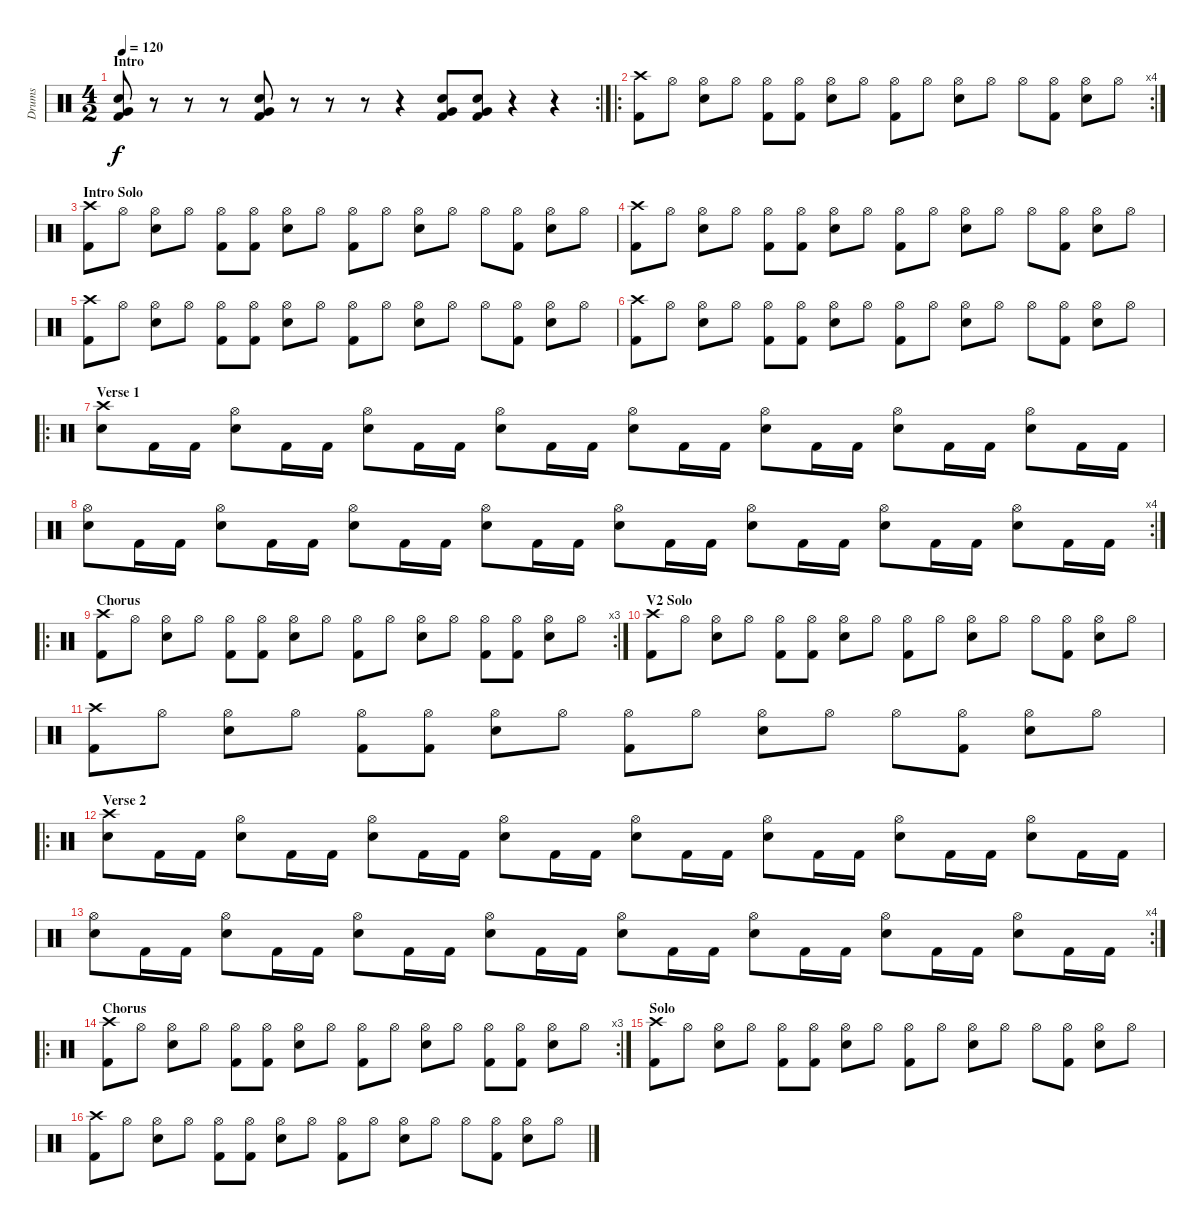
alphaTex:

\track ("Drums" "Drums") {instrument percussion}
\staff {score}
\articulation defaults
\rc 2
\ts (4 2)
\section ("" "Intro")
\tempo 120
\clef neutral
\ks c
("Electric Snare (hit)" "Very Low Tom (hit)" "Kick (hit) 2").8{dy f} r.8 r.8 r.8 ("Electric Snare (hit)" "Very Low Tom (hit)" "Kick (hit) 2").8 r.8 r.8 r.8 r.4 ("Electric Snare (hit)" "Very Low Tom (hit)" "Kick (hit) 2").8 ("Electric Snare (hit)" "Very Low Tom (hit)" "Kick (hit) 2").8 r.4 r.4 |
\ro
\rc 4
("Crash high (hit)" "Kick (hit) 2").8 "Hi-Hat (open)".8 ("Hi-Hat (open)" "Electric Snare (hit)").8 "Hi-Hat (open)".8 ("Hi-Hat (open)" "Kick (hit) 2").8 ("Hi-Hat (open)" "Kick (hit) 2").8 ("Hi-Hat (open)" "Electric Snare (hit)").8 "Hi-Hat (open)".8 ("Hi-Hat (open)" "Kick (hit) 2").8 "Hi-Hat (open)".8 ("Hi-Hat (open)" "Electric Snare (hit)").8 "Hi-Hat (open)".8 "Hi-Hat (open)".8 ("Hi-Hat (open)" "Kick (hit) 2").8 ("Hi-Hat (open)" "Electric Snare (hit)").8 "Hi-Hat (open)".8 |
\section ("" "Intro Solo")
("Crash high (hit)" "Kick (hit) 2").8 "Hi-Hat (open)".8 ("Hi-Hat (open)" "Electric Snare (hit)").8 "Hi-Hat (open)".8 ("Hi-Hat (open)" "Kick (hit) 2").8 ("Hi-Hat (open)" "Kick (hit) 2").8 ("Hi-Hat (open)" "Electric Snare (hit)").8 "Hi-Hat (open)".8 ("Hi-Hat (open)" "Kick (hit) 2").8 "Hi-Hat (open)".8 ("Hi-Hat (open)" "Electric Snare (hit)").8 "Hi-Hat (open)".8 "Hi-Hat (open)".8 ("Hi-Hat (open)" "Kick (hit) 2").8 ("Hi-Hat (open)" "Electric Snare (hit)").8 "Hi-Hat (open)".8 |
("Crash high (hit)" "Kick (hit) 2").8 "Hi-Hat (open)".8 ("Hi-Hat (open)" "Electric Snare (hit)").8 "Hi-Hat (open)".8 ("Hi-Hat (open)" "Kick (hit) 2").8 ("Hi-Hat (open)" "Kick (hit) 2").8 ("Hi-Hat (open)" "Electric Snare (hit)").8 "Hi-Hat (open)".8 ("Hi-Hat (open)" "Kick (hit) 2").8 "Hi-Hat (open)".8 ("Hi-Hat (open)" "Electric Snare (hit)").8 "Hi-Hat (open)".8 "Hi-Hat (open)".8 ("Hi-Hat (open)" "Kick (hit) 2").8 ("Hi-Hat (open)" "Electric Snare (hit)").8 "Hi-Hat (open)".8 |
("Crash high (hit)" "Kick (hit) 2").8 "Hi-Hat (open)".8 ("Hi-Hat (open)" "Electric Snare (hit)").8 "Hi-Hat (open)".8 ("Hi-Hat (open)" "Kick (hit) 2").8 ("Hi-Hat (open)" "Kick (hit) 2").8 ("Hi-Hat (open)" "Electric Snare (hit)").8 "Hi-Hat (open)".8 ("Hi-Hat (open)" "Kick (hit) 2").8 "Hi-Hat (open)".8 ("Hi-Hat (open)" "Electric Snare (hit)").8 "Hi-Hat (open)".8 "Hi-Hat (open)".8 ("Hi-Hat (open)" "Kick (hit) 2").8 ("Hi-Hat (open)" "Electric Snare (hit)").8 "Hi-Hat (open)".8 |
("Crash high (hit)" "Kick (hit) 2").8 "Hi-Hat (open)".8 ("Hi-Hat (open)" "Electric Snare (hit)").8 "Hi-Hat (open)".8 ("Hi-Hat (open)" "Kick (hit) 2").8 ("Hi-Hat (open)" "Kick (hit) 2").8 ("Hi-Hat (open)" "Electric Snare (hit)").8 "Hi-Hat (open)".8 ("Hi-Hat (open)" "Kick (hit) 2").8 "Hi-Hat (open)".8 ("Hi-Hat (open)" "Electric Snare (hit)").8 "Hi-Hat (open)".8 "Hi-Hat (open)".8 ("Hi-Hat (open)" "Kick (hit) 2").8 ("Hi-Hat (open)" "Electric Snare (hit)").8 "Hi-Hat (open)".8 |
\ro
\section ("" "Verse 1")
("Crash high (hit)" "Electric Snare (hit)").8 "Kick (hit) 2".16 "Kick (hit) 2".16 ("Hi-Hat (open)" "Electric Snare (hit)").8 "Kick (hit) 2".16 "Kick (hit) 2".16 ("Hi-Hat (open)" "Electric Snare (hit)").8 "Kick (hit) 2".16 "Kick (hit) 2".16 ("Hi-Hat (open)" "Electric Snare (hit)").8 "Kick (hit) 2".16 "Kick (hit) 2".16 ("Hi-Hat (open)" "Electric Snare (hit)").8 "Kick (hit) 2".16 "Kick (hit) 2".16 ("Hi-Hat (open)" "Electric Snare (hit)").8 "Kick (hit) 2".16 "Kick (hit) 2".16 ("Hi-Hat (open)" "Electric Snare (hit)").8 "Kick (hit) 2".16 "Kick (hit) 2".16 ("Hi-Hat (open)" "Electric Snare (hit)").8 "Kick (hit) 2".16 "Kick (hit) 2".16 |
\rc 4
("Hi-Hat (open)" "Electric Snare (hit)").8 "Kick (hit) 2".16 "Kick (hit) 2".16 ("Hi-Hat (open)" "Electric Snare (hit)").8 "Kick (hit) 2".16 "Kick (hit) 2".16 ("Hi-Hat (open)" "Electric Snare (hit)").8 "Kick (hit) 2".16 "Kick (hit) 2".16 ("Hi-Hat (open)" "Electric Snare (hit)").8 "Kick (hit) 2".16 "Kick (hit) 2".16 ("Hi-Hat (open)" "Electric Snare (hit)").8 "Kick (hit) 2".16 "Kick (hit) 2".16 ("Hi-Hat (open)" "Electric Snare (hit)").8 "Kick (hit) 2".16 "Kick (hit) 2".16 ("Hi-Hat (open)" "Electric Snare (hit)").8 "Kick (hit) 2".16 "Kick (hit) 2".16 ("Hi-Hat (open)" "Electric Snare (hit)").8 "Kick (hit) 2".16 "Kick (hit) 2".16 |
\ro
\rc 3
\section ("" "Chorus")
("Crash high (hit)" "Kick (hit) 2").8 "Hi-Hat (open)".8 ("Hi-Hat (open)" "Electric Snare (hit)").8 "Hi-Hat (open)".8 ("Hi-Hat (open)" "Kick (hit) 2").8 ("Hi-Hat (open)" "Kick (hit) 2").8 ("Hi-Hat (open)" "Electric Snare (hit)").8 "Hi-Hat (open)".8 ("Hi-Hat (open)" "Kick (hit) 2").8 "Hi-Hat (open)".8 ("Hi-Hat (open)" "Electric Snare (hit)").8 "Hi-Hat (open)".8 ("Hi-Hat (open)" "Kick (hit) 2").8 ("Hi-Hat (open)" "Kick (hit) 2").8 ("Hi-Hat (open)" "Electric Snare (hit)").8 "Hi-Hat (open)".8 |
\section ("" "V2 Solo")
("Crash high (hit)" "Kick (hit) 2").8 "Hi-Hat (open)".8 ("Hi-Hat (open)" "Electric Snare (hit)").8 "Hi-Hat (open)".8 ("Hi-Hat (open)" "Kick (hit) 2").8 ("Hi-Hat (open)" "Kick (hit) 2").8 ("Hi-Hat (open)" "Electric Snare (hit)").8 "Hi-Hat (open)".8 ("Hi-Hat (open)" "Kick (hit) 2").8 "Hi-Hat (open)".8 ("Hi-Hat (open)" "Electric Snare (hit)").8 "Hi-Hat (open)".8 "Hi-Hat (open)".8 ("Hi-Hat (open)" "Kick (hit) 2").8 ("Hi-Hat (open)" "Electric Snare (hit)").8 "Hi-Hat (open)".8 |
("Crash high (hit)" "Kick (hit) 2").8 "Hi-Hat (open)".8 ("Hi-Hat (open)" "Electric Snare (hit)").8 "Hi-Hat (open)".8 ("Hi-Hat (open)" "Kick (hit) 2").8 ("Hi-Hat (open)" "Kick (hit) 2").8 ("Hi-Hat (open)" "Electric Snare (hit)").8 "Hi-Hat (open)".8 ("Hi-Hat (open)" "Kick (hit) 2").8 "Hi-Hat (open)".8 ("Hi-Hat (open)" "Electric Snare (hit)").8 "Hi-Hat (open)".8 "Hi-Hat (open)".8 ("Hi-Hat (open)" "Kick (hit) 2").8 ("Hi-Hat (open)" "Electric Snare (hit)").8 "Hi-Hat (open)".8 |
\ro
\section ("" "Verse 2")
("Crash high (hit)" "Electric Snare (hit)").8 "Kick (hit) 2".16 "Kick (hit) 2".16 ("Hi-Hat (open)" "Electric Snare (hit)").8 "Kick (hit) 2".16 "Kick (hit) 2".16 ("Hi-Hat (open)" "Electric Snare (hit)").8 "Kick (hit) 2".16 "Kick (hit) 2".16 ("Hi-Hat (open)" "Electric Snare (hit)").8 "Kick (hit) 2".16 "Kick (hit) 2".16 ("Hi-Hat (open)" "Electric Snare (hit)").8 "Kick (hit) 2".16 "Kick (hit) 2".16 ("Hi-Hat (open)" "Electric Snare (hit)").8 "Kick (hit) 2".16 "Kick (hit) 2".16 ("Hi-Hat (open)" "Electric Snare (hit)").8 "Kick (hit) 2".16 "Kick (hit) 2".16 ("Hi-Hat (open)" "Electric Snare (hit)").8 "Kick (hit) 2".16 "Kick (hit) 2".16 |
\rc 4
("Hi-Hat (open)" "Electric Snare (hit)").8 "Kick (hit) 2".16 "Kick (hit) 2".16 ("Hi-Hat (open)" "Electric Snare (hit)").8 "Kick (hit) 2".16 "Kick (hit) 2".16 ("Hi-Hat (open)" "Electric Snare (hit)").8 "Kick (hit) 2".16 "Kick (hit) 2".16 ("Hi-Hat (open)" "Electric Snare (hit)").8 "Kick (hit) 2".16 "Kick (hit) 2".16 ("Hi-Hat (open)" "Electric Snare (hit)").8 "Kick (hit) 2".16 "Kick (hit) 2".16 ("Hi-Hat (open)" "Electric Snare (hit)").8 "Kick (hit) 2".16 "Kick (hit) 2".16 ("Hi-Hat (open)" "Electric Snare (hit)").8 "Kick (hit) 2".16 "Kick (hit) 2".16 ("Hi-Hat (open)" "Electric Snare (hit)").8 "Kick (hit) 2".16 "Kick (hit) 2".16 |
\ro
\rc 3
\section ("" "Chorus")
("Crash high (hit)" "Kick (hit) 2").8 "Hi-Hat (open)".8 ("Hi-Hat (open)" "Electric Snare (hit)").8 "Hi-Hat (open)".8 ("Hi-Hat (open)" "Kick (hit) 2").8 ("Hi-Hat (open)" "Kick (hit) 2").8 ("Hi-Hat (open)" "Electric Snare (hit)").8 "Hi-Hat (open)".8 ("Hi-Hat (open)" "Kick (hit) 2").8 "Hi-Hat (open)".8 ("Hi-Hat (open)" "Electric Snare (hit)").8 "Hi-Hat (open)".8 ("Hi-Hat (open)" "Kick (hit) 2").8 ("Hi-Hat (open)" "Kick (hit) 2").8 ("Hi-Hat (open)" "Electric Snare (hit)").8 "Hi-Hat (open)".8 |
\section ("" "Solo")
("Crash high (hit)" "Kick (hit) 2").8 "Hi-Hat (open)".8 ("Hi-Hat (open)" "Electric Snare (hit)").8 "Hi-Hat (open)".8 ("Hi-Hat (open)" "Kick (hit) 2").8 ("Hi-Hat (open)" "Kick (hit) 2").8 ("Hi-Hat (open)" "Electric Snare (hit)").8 "Hi-Hat (open)".8 ("Hi-Hat (open)" "Kick (hit) 2").8 "Hi-Hat (open)".8 ("Hi-Hat (open)" "Electric Snare (hit)").8 "Hi-Hat (open)".8 "Hi-Hat (open)".8 ("Hi-Hat (open)" "Kick (hit) 2").8 ("Hi-Hat (open)" "Electric Snare (hit)").8 "Hi-Hat (open)".8 |
("Crash high (hit)" "Kick (hit) 2").8 "Hi-Hat (open)".8 ("Hi-Hat (open)" "Electric Snare (hit)").8 "Hi-Hat (open)".8 ("Hi-Hat (open)" "Kick (hit) 2").8 ("Hi-Hat (open)" "Kick (hit) 2").8 ("Hi-Hat (open)" "Electric Snare (hit)").8 "Hi-Hat (open)".8 ("Hi-Hat (open)" "Kick (hit) 2").8 "Hi-Hat (open)".8 ("Hi-Hat (open)" "Electric Snare (hit)").8 "Hi-Hat (open)".8 "Hi-Hat (open)".8 ("Hi-Hat (open)" "Kick (hit) 2").8 ("Hi-Hat (open)" "Electric Snare (hit)").8 "Hi-Hat (open)".8
